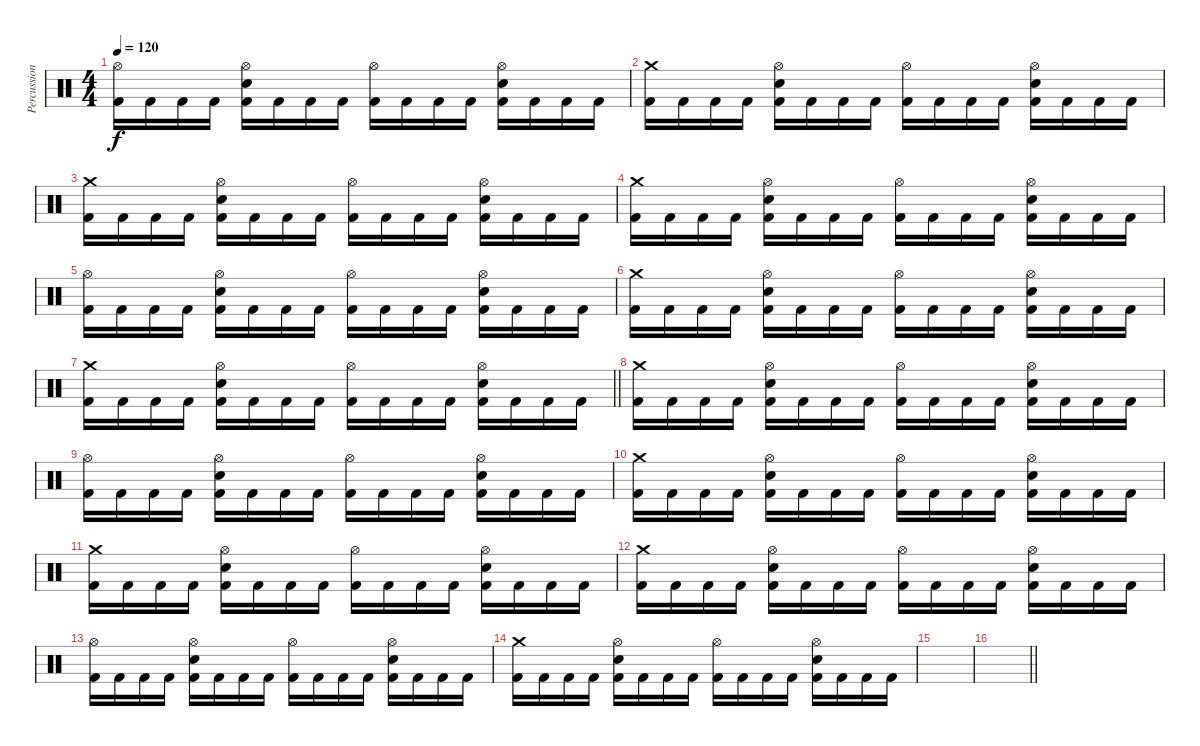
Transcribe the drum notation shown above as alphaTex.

\track ("Percussion" "Percussion") {instrument percussion}
\staff {score}
\articulation defaults
\ts (4 4)
\tempo 120
\clef neutral
\ks c
("Hi-Hat (open)" "Kick (hit) 2").16{dy f} "Kick (hit) 2".16 "Kick (hit) 2".16 "Kick (hit) 2".16 ("Hi-Hat (open)" "Electric Snare (hit)" "Kick (hit) 2").16 "Kick (hit) 2".16 "Kick (hit) 2".16 "Kick (hit) 2".16 ("Hi-Hat (open)" "Kick (hit) 2").16 "Kick (hit) 2".16 "Kick (hit) 2".16 "Kick (hit) 2".16 ("Hi-Hat (open)" "Electric Snare (hit)" "Kick (hit) 2").16 "Kick (hit) 2".16 "Kick (hit) 2".16 "Kick (hit) 2".16 |
("Crash medium (hit)" "Kick (hit) 2").16 "Kick (hit) 2".16 "Kick (hit) 2".16 "Kick (hit) 2".16 ("Hi-Hat (open)" "Electric Snare (hit)" "Kick (hit) 2").16 "Kick (hit) 2".16 "Kick (hit) 2".16 "Kick (hit) 2".16 ("Hi-Hat (open)" "Kick (hit) 2").16 "Kick (hit) 2".16 "Kick (hit) 2".16 "Kick (hit) 2".16 ("Hi-Hat (open)" "Electric Snare (hit)" "Kick (hit) 2").16 "Kick (hit) 2".16 "Kick (hit) 2".16 "Kick (hit) 2".16 |
("Crash medium (hit)" "Kick (hit) 2").16 "Kick (hit) 2".16 "Kick (hit) 2".16 "Kick (hit) 2".16 ("Hi-Hat (open)" "Electric Snare (hit)" "Kick (hit) 2").16 "Kick (hit) 2".16 "Kick (hit) 2".16 "Kick (hit) 2".16 ("Hi-Hat (open)" "Kick (hit) 2").16 "Kick (hit) 2".16 "Kick (hit) 2".16 "Kick (hit) 2".16 ("Hi-Hat (open)" "Electric Snare (hit)" "Kick (hit) 2").16 "Kick (hit) 2".16 "Kick (hit) 2".16 "Kick (hit) 2".16 |
("Crash medium (hit)" "Kick (hit) 2").16 "Kick (hit) 2".16 "Kick (hit) 2".16 "Kick (hit) 2".16 ("Hi-Hat (open)" "Electric Snare (hit)" "Kick (hit) 2").16 "Kick (hit) 2".16 "Kick (hit) 2".16 "Kick (hit) 2".16 ("Hi-Hat (open)" "Kick (hit) 2").16 "Kick (hit) 2".16 "Kick (hit) 2".16 "Kick (hit) 2".16 ("Hi-Hat (open)" "Electric Snare (hit)" "Kick (hit) 2").16 "Kick (hit) 2".16 "Kick (hit) 2".16 "Kick (hit) 2".16 |
("Hi-Hat (open)" "Kick (hit) 2").16 "Kick (hit) 2".16 "Kick (hit) 2".16 "Kick (hit) 2".16 ("Hi-Hat (open)" "Electric Snare (hit)" "Kick (hit) 2").16 "Kick (hit) 2".16 "Kick (hit) 2".16 "Kick (hit) 2".16 ("Hi-Hat (open)" "Kick (hit) 2").16 "Kick (hit) 2".16 "Kick (hit) 2".16 "Kick (hit) 2".16 ("Hi-Hat (open)" "Electric Snare (hit)" "Kick (hit) 2").16 "Kick (hit) 2".16 "Kick (hit) 2".16 "Kick (hit) 2".16 |
("Crash medium (hit)" "Kick (hit) 2").16 "Kick (hit) 2".16 "Kick (hit) 2".16 "Kick (hit) 2".16 ("Hi-Hat (open)" "Electric Snare (hit)" "Kick (hit) 2").16 "Kick (hit) 2".16 "Kick (hit) 2".16 "Kick (hit) 2".16 ("Hi-Hat (open)" "Kick (hit) 2").16 "Kick (hit) 2".16 "Kick (hit) 2".16 "Kick (hit) 2".16 ("Hi-Hat (open)" "Electric Snare (hit)" "Kick (hit) 2").16 "Kick (hit) 2".16 "Kick (hit) 2".16 "Kick (hit) 2".16 |
\barLineRight lightlight
("Crash medium (hit)" "Kick (hit) 2").16 "Kick (hit) 2".16 "Kick (hit) 2".16 "Kick (hit) 2".16 ("Hi-Hat (open)" "Electric Snare (hit)" "Kick (hit) 2").16 "Kick (hit) 2".16 "Kick (hit) 2".16 "Kick (hit) 2".16 ("Hi-Hat (open)" "Kick (hit) 2").16 "Kick (hit) 2".16 "Kick (hit) 2".16 "Kick (hit) 2".16 ("Hi-Hat (open)" "Electric Snare (hit)" "Kick (hit) 2").16 "Kick (hit) 2".16 "Kick (hit) 2".16 "Kick (hit) 2".16 |
("Crash medium (hit)" "Kick (hit) 2").16 "Kick (hit) 2".16 "Kick (hit) 2".16 "Kick (hit) 2".16 ("Hi-Hat (open)" "Electric Snare (hit)" "Kick (hit) 2").16 "Kick (hit) 2".16 "Kick (hit) 2".16 "Kick (hit) 2".16 ("Hi-Hat (open)" "Kick (hit) 2").16 "Kick (hit) 2".16 "Kick (hit) 2".16 "Kick (hit) 2".16 ("Hi-Hat (open)" "Electric Snare (hit)" "Kick (hit) 2").16 "Kick (hit) 2".16 "Kick (hit) 2".16 "Kick (hit) 2".16 |
("Hi-Hat (open)" "Kick (hit) 2").16 "Kick (hit) 2".16 "Kick (hit) 2".16 "Kick (hit) 2".16 ("Hi-Hat (open)" "Electric Snare (hit)" "Kick (hit) 2").16 "Kick (hit) 2".16 "Kick (hit) 2".16 "Kick (hit) 2".16 ("Hi-Hat (open)" "Kick (hit) 2").16 "Kick (hit) 2".16 "Kick (hit) 2".16 "Kick (hit) 2".16 ("Hi-Hat (open)" "Electric Snare (hit)" "Kick (hit) 2").16 "Kick (hit) 2".16 "Kick (hit) 2".16 "Kick (hit) 2".16 |
("Crash medium (hit)" "Kick (hit) 2").16 "Kick (hit) 2".16 "Kick (hit) 2".16 "Kick (hit) 2".16 ("Hi-Hat (open)" "Electric Snare (hit)" "Kick (hit) 2").16 "Kick (hit) 2".16 "Kick (hit) 2".16 "Kick (hit) 2".16 ("Hi-Hat (open)" "Kick (hit) 2").16 "Kick (hit) 2".16 "Kick (hit) 2".16 "Kick (hit) 2".16 ("Hi-Hat (open)" "Electric Snare (hit)" "Kick (hit) 2").16 "Kick (hit) 2".16 "Kick (hit) 2".16 "Kick (hit) 2".16 |
("Crash medium (hit)" "Kick (hit) 2").16 "Kick (hit) 2".16 "Kick (hit) 2".16 "Kick (hit) 2".16 ("Hi-Hat (open)" "Electric Snare (hit)" "Kick (hit) 2").16 "Kick (hit) 2".16 "Kick (hit) 2".16 "Kick (hit) 2".16 ("Hi-Hat (open)" "Kick (hit) 2").16 "Kick (hit) 2".16 "Kick (hit) 2".16 "Kick (hit) 2".16 ("Hi-Hat (open)" "Electric Snare (hit)" "Kick (hit) 2").16 "Kick (hit) 2".16 "Kick (hit) 2".16 "Kick (hit) 2".16 |
("Crash medium (hit)" "Kick (hit) 2").16 "Kick (hit) 2".16 "Kick (hit) 2".16 "Kick (hit) 2".16 ("Hi-Hat (open)" "Electric Snare (hit)" "Kick (hit) 2").16 "Kick (hit) 2".16 "Kick (hit) 2".16 "Kick (hit) 2".16 ("Hi-Hat (open)" "Kick (hit) 2").16 "Kick (hit) 2".16 "Kick (hit) 2".16 "Kick (hit) 2".16 ("Hi-Hat (open)" "Electric Snare (hit)" "Kick (hit) 2").16 "Kick (hit) 2".16 "Kick (hit) 2".16 "Kick (hit) 2".16 |
("Hi-Hat (open)" "Kick (hit) 2").16 "Kick (hit) 2".16 "Kick (hit) 2".16 "Kick (hit) 2".16 ("Hi-Hat (open)" "Electric Snare (hit)" "Kick (hit) 2").16 "Kick (hit) 2".16 "Kick (hit) 2".16 "Kick (hit) 2".16 ("Hi-Hat (open)" "Kick (hit) 2").16 "Kick (hit) 2".16 "Kick (hit) 2".16 "Kick (hit) 2".16 ("Hi-Hat (open)" "Electric Snare (hit)" "Kick (hit) 2").16 "Kick (hit) 2".16 "Kick (hit) 2".16 "Kick (hit) 2".16 |
("Crash medium (hit)" "Kick (hit) 2").16 "Kick (hit) 2".16 "Kick (hit) 2".16 "Kick (hit) 2".16 ("Hi-Hat (open)" "Electric Snare (hit)" "Kick (hit) 2").16 "Kick (hit) 2".16 "Kick (hit) 2".16 "Kick (hit) 2".16 ("Hi-Hat (open)" "Kick (hit) 2").16 "Kick (hit) 2".16 "Kick (hit) 2".16 "Kick (hit) 2".16 ("Hi-Hat (open)" "Electric Snare (hit)" "Kick (hit) 2").16 "Kick (hit) 2".16 "Kick (hit) 2".16 "Kick (hit) 2".16 |
|
\barLineRight lightlight
